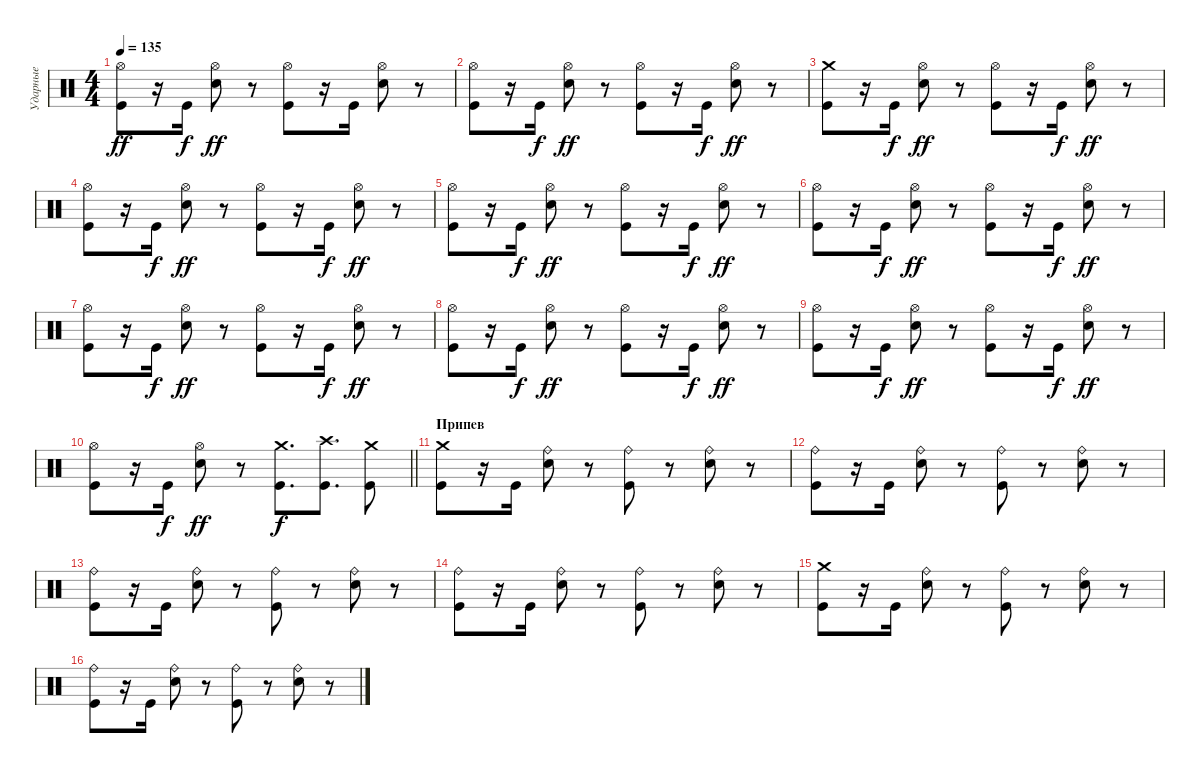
\track ("Ударные" "Ударные") {instrument percussion}
\staff {score}
\articulation defaults
\ts (4 4)
\tempo 135
\clef neutral
\ks c
("Kick (hit)" "Hi-Hat (open)").8{dy ff} r.16 "Kick (hit)".16{dy f} ("Electric Snare (hit)" "Hi-Hat (open)").8{dy ff} r.8 ("Kick (hit)" "Hi-Hat (open)").8 r.16 "Kick (hit)".16 ("Electric Snare (hit)" "Hi-Hat (open)").8 r.8 |
("Kick (hit)" "Hi-Hat (open)").8 r.16 "Kick (hit)".16{dy f} ("Electric Snare (hit)" "Hi-Hat (open)").8{dy ff} r.8 ("Kick (hit)" "Hi-Hat (open)").8 r.16 "Kick (hit)".16{dy f} ("Electric Snare (hit)" "Hi-Hat (open)").8{dy ff} r.8 |
("Kick (hit)" "Crash medium (hit)").8 r.16 "Kick (hit)".16{dy f} ("Electric Snare (hit)" "Hi-Hat (open)").8{dy ff} r.8 ("Kick (hit)" "Hi-Hat (open)").8 r.16 "Kick (hit)".16{dy f} ("Electric Snare (hit)" "Hi-Hat (open)").8{dy ff} r.8 |
("Kick (hit)" "Hi-Hat (open)").8 r.16 "Kick (hit)".16{dy f} ("Electric Snare (hit)" "Hi-Hat (open)").8{dy ff} r.8 ("Kick (hit)" "Hi-Hat (open)").8 r.16 "Kick (hit)".16{dy f} ("Electric Snare (hit)" "Hi-Hat (open)").8{dy ff} r.8 |
("Kick (hit)" "Hi-Hat (open)").8 r.16 "Kick (hit)".16{dy f} ("Electric Snare (hit)" "Hi-Hat (open)").8{dy ff} r.8 ("Kick (hit)" "Hi-Hat (open)").8 r.16 "Kick (hit)".16{dy f} ("Electric Snare (hit)" "Hi-Hat (open)").8{dy ff} r.8 |
("Kick (hit)" "Hi-Hat (open)").8 r.16 "Kick (hit)".16{dy f} ("Electric Snare (hit)" "Hi-Hat (open)").8{dy ff} r.8 ("Kick (hit)" "Hi-Hat (open)").8 r.16 "Kick (hit)".16{dy f} ("Electric Snare (hit)" "Hi-Hat (open)").8{dy ff} r.8 |
("Kick (hit)" "Hi-Hat (open)").8 r.16 "Kick (hit)".16{dy f} ("Electric Snare (hit)" "Hi-Hat (open)").8{dy ff} r.8 ("Kick (hit)" "Hi-Hat (open)").8 r.16 "Kick (hit)".16{dy f} ("Electric Snare (hit)" "Hi-Hat (open)").8{dy ff} r.8 |
("Kick (hit)" "Hi-Hat (open)").8 r.16 "Kick (hit)".16{dy f} ("Electric Snare (hit)" "Hi-Hat (open)").8{dy ff} r.8 ("Kick (hit)" "Hi-Hat (open)").8 r.16 "Kick (hit)".16{dy f} ("Electric Snare (hit)" "Hi-Hat (open)").8{dy ff} r.8 |
("Kick (hit)" "Hi-Hat (open)").8 r.16 "Kick (hit)".16{dy f} ("Electric Snare (hit)" "Hi-Hat (open)").8{dy ff} r.8 ("Kick (hit)" "Hi-Hat (open)").8 r.16 "Kick (hit)".16{dy f} ("Electric Snare (hit)" "Hi-Hat (open)").8{dy ff} r.8 |
\barLineRight lightlight
("Kick (hit)" "Hi-Hat (open)").8 r.16 "Kick (hit)".16{dy f} ("Electric Snare (hit)" "Hi-Hat (open)").8{dy ff} r.8 ("Crash medium (hit)" "Kick (hit)").8{d dy f} ("Crash high (hit)" "Kick (hit)").8{d} ("Crash medium (hit)" "Kick (hit)").8 |
\section ("" "Припев")
("Crash medium (hit)" "Kick (hit)").8 r.16 "Kick (hit)".16 ("Ride (bell)" "Electric Snare (hit)").8 r.8 ("Ride (bell)" "Kick (hit)").8 r.8 ("Ride (bell)" "Electric Snare (hit)").8 r.8 |
("Ride (bell)" "Kick (hit)").8 r.16 "Kick (hit)".16 ("Ride (bell)" "Electric Snare (hit)").8 r.8 ("Ride (bell)" "Kick (hit)").8 r.8 ("Ride (bell)" "Electric Snare (hit)").8 r.8 |
("Ride (bell)" "Kick (hit)").8 r.16 "Kick (hit)".16 ("Ride (bell)" "Electric Snare (hit)").8 r.8 ("Ride (bell)" "Kick (hit)").8 r.8 ("Ride (bell)" "Electric Snare (hit)").8 r.8 |
("Ride (bell)" "Kick (hit)").8 r.16 "Kick (hit)".16 ("Ride (bell)" "Electric Snare (hit)").8 r.8 ("Ride (bell)" "Kick (hit)").8 r.8 ("Ride (bell)" "Electric Snare (hit)").8 r.8 |
("Crash medium (hit)" "Kick (hit)").8 r.16 "Kick (hit)".16 ("Ride (bell)" "Electric Snare (hit)").8 r.8 ("Ride (bell)" "Kick (hit)").8 r.8 ("Ride (bell)" "Electric Snare (hit)").8 r.8 |
("Ride (bell)" "Kick (hit)").8 r.16 "Kick (hit)".16 ("Ride (bell)" "Electric Snare (hit)").8 r.8 ("Ride (bell)" "Kick (hit)").8 r.8 ("Ride (bell)" "Electric Snare (hit)").8 r.8
